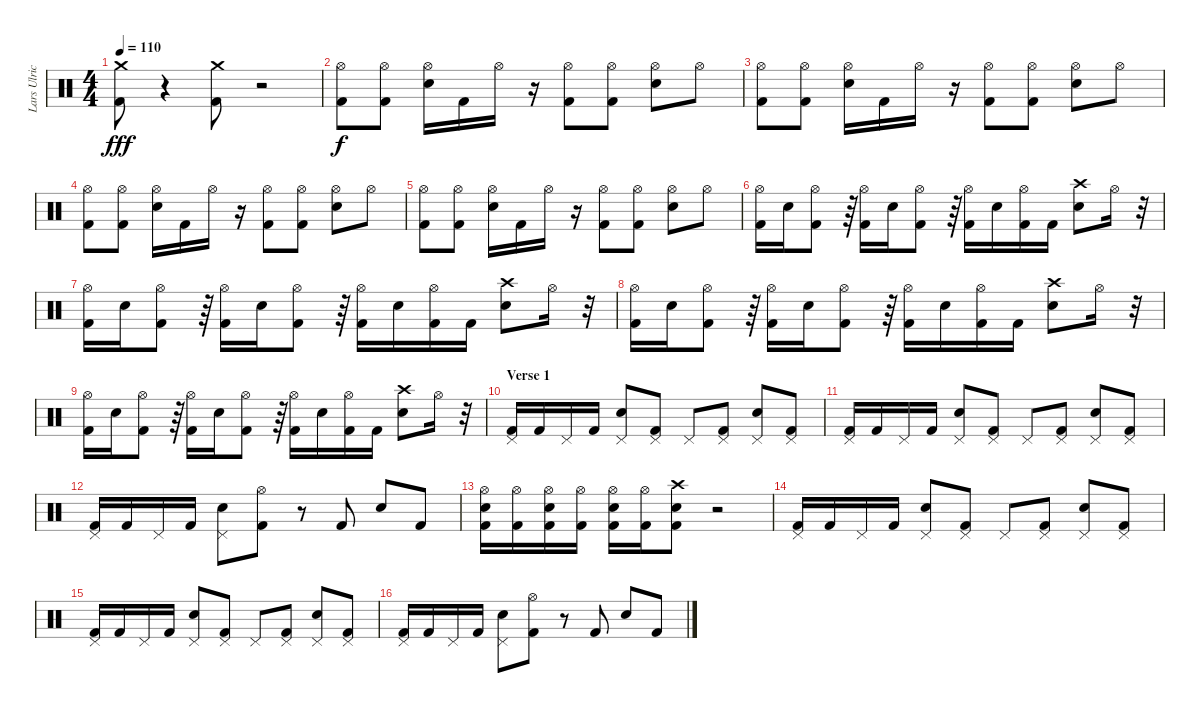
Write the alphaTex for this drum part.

\track ("Lars Ulrich" "Lars Ulric") {instrument percussion}
\staff {score}
\articulation defaults
\ts (4 4)
\tempo 110
\clef neutral
\ks c
("Crash medium (hit)" "Kick (hit) 2").8{dy fff} r.4 ("Crash medium (hit)" "Kick (hit) 2").8 r.2 |
("Hi-Hat (open)" "Kick (hit) 2").8{dy f} ("Hi-Hat (open)" "Kick (hit) 2").8 ("Hi-Hat (open)" "Electric Snare (hit)").16 "Kick (hit) 2".16 "Hi-Hat (open)".16 r.16 ("Hi-Hat (open)" "Kick (hit) 2").8 ("Hi-Hat (open)" "Kick (hit) 2").8 ("Hi-Hat (open)" "Electric Snare (hit)").8 "Hi-Hat (open)".8 |
("Hi-Hat (open)" "Kick (hit) 2").8 ("Hi-Hat (open)" "Kick (hit) 2").8 ("Hi-Hat (open)" "Electric Snare (hit)").16 "Kick (hit) 2".16 "Hi-Hat (open)".16 r.16 ("Hi-Hat (open)" "Kick (hit) 2").8 ("Hi-Hat (open)" "Kick (hit) 2").8 ("Hi-Hat (open)" "Electric Snare (hit)").8 "Hi-Hat (open)".8 |
("Hi-Hat (open)" "Kick (hit) 2").8 ("Hi-Hat (open)" "Kick (hit) 2").8 ("Hi-Hat (open)" "Electric Snare (hit)").16 "Kick (hit) 2".16 "Hi-Hat (open)".16 r.16 ("Hi-Hat (open)" "Kick (hit) 2").8 ("Hi-Hat (open)" "Kick (hit) 2").8 ("Hi-Hat (open)" "Electric Snare (hit)").8 "Hi-Hat (open)".8 |
("Hi-Hat (open)" "Kick (hit) 2").8 ("Hi-Hat (open)" "Kick (hit) 2").8 ("Hi-Hat (open)" "Electric Snare (hit)").16 "Kick (hit) 2".16 "Hi-Hat (open)".16 r.16 ("Hi-Hat (open)" "Kick (hit) 2").8 ("Hi-Hat (open)" "Kick (hit) 2").8 ("Hi-Hat (open)" "Electric Snare (hit)").8 "Hi-Hat (open)".8 |
("Hi-Hat (open)" "Kick (hit) 2").16 "Electric Snare (hit)".16 ("Hi-Hat (open)" "Kick (hit) 2").8 r.64 ("Hi-Hat (open)" "Kick (hit) 2").16 "Electric Snare (hit)".16 ("Hi-Hat (open)" "Kick (hit) 2").8 r.64 ("Hi-Hat (open)" "Kick (hit) 2").16 "Electric Snare (hit)".16 ("Hi-Hat (open)" "Kick (hit) 2").16 "Kick (hit) 2".16 ("Crash high (hit)" "Electric Snare (hit)").8 "Hi-Hat (open)".16 r.32 |
("Hi-Hat (open)" "Kick (hit) 2").16 "Electric Snare (hit)".16 ("Hi-Hat (open)" "Kick (hit) 2").8 r.64 ("Hi-Hat (open)" "Kick (hit) 2").16 "Electric Snare (hit)".16 ("Hi-Hat (open)" "Kick (hit) 2").8 r.64 ("Hi-Hat (open)" "Kick (hit) 2").16 "Electric Snare (hit)".16 ("Hi-Hat (open)" "Kick (hit) 2").16 "Kick (hit) 2".16 ("Crash high (hit)" "Electric Snare (hit)").8 "Hi-Hat (open)".16 r.32 |
("Hi-Hat (open)" "Kick (hit) 2").16 "Electric Snare (hit)".16 ("Hi-Hat (open)" "Kick (hit) 2").8 r.64 ("Hi-Hat (open)" "Kick (hit) 2").16 "Electric Snare (hit)".16 ("Hi-Hat (open)" "Kick (hit) 2").8 r.64 ("Hi-Hat (open)" "Kick (hit) 2").16 "Electric Snare (hit)".16 ("Hi-Hat (open)" "Kick (hit) 2").16 "Kick (hit) 2".16 ("Crash high (hit)" "Electric Snare (hit)").8 "Hi-Hat (open)".16 r.32 |
("Hi-Hat (open)" "Kick (hit) 2").16 "Electric Snare (hit)".16 ("Hi-Hat (open)" "Kick (hit) 2").8 r.64 ("Hi-Hat (open)" "Kick (hit) 2").16 "Electric Snare (hit)".16 ("Hi-Hat (open)" "Kick (hit) 2").8 r.64 ("Hi-Hat (open)" "Kick (hit) 2").16 "Electric Snare (hit)".16 ("Hi-Hat (open)" "Kick (hit) 2").16 "Kick (hit) 2".16 ("Crash high (hit)" "Electric Snare (hit)").8 "Hi-Hat (open)".16 r.32 |
\section ("" "Verse 1")
("Pedal Hi-Hat (hit)" "Kick (hit) 2").16 "Kick (hit) 2".16 "Pedal Hi-Hat (hit)".16 "Kick (hit) 2".16 ("Pedal Hi-Hat (hit)" "Electric Snare (hit)").8 ("Pedal Hi-Hat (hit)" "Kick (hit) 2").8 "Pedal Hi-Hat (hit)".8 ("Pedal Hi-Hat (hit)" "Kick (hit) 2").8 ("Pedal Hi-Hat (hit)" "Electric Snare (hit)").8 ("Pedal Hi-Hat (hit)" "Kick (hit) 2").8 |
("Pedal Hi-Hat (hit)" "Kick (hit) 2").16 "Kick (hit) 2".16 "Pedal Hi-Hat (hit)".16 "Kick (hit) 2".16 ("Pedal Hi-Hat (hit)" "Electric Snare (hit)").8 ("Pedal Hi-Hat (hit)" "Kick (hit) 2").8 "Pedal Hi-Hat (hit)".8 ("Pedal Hi-Hat (hit)" "Kick (hit) 2").8 ("Pedal Hi-Hat (hit)" "Electric Snare (hit)").8 ("Pedal Hi-Hat (hit)" "Kick (hit) 2").8 |
("Pedal Hi-Hat (hit)" "Kick (hit) 2").16 "Kick (hit) 2".16 "Pedal Hi-Hat (hit)".16 "Kick (hit) 2".16 ("Pedal Hi-Hat (hit)" "Electric Snare (hit)").8 ("Hi-Hat (open)" "Kick (hit) 2").8 r.8 "Kick (hit) 2".8 "Electric Snare (hit)".8 "Kick (hit) 2".8 |
("Hi-Hat (open)" "Electric Snare (hit)" "Kick (hit) 2").16 ("Hi-Hat (open)" "Kick (hit) 2").16 ("Hi-Hat (open)" "Electric Snare (hit)" "Kick (hit) 2").16 ("Hi-Hat (open)" "Kick (hit) 2").16 ("Hi-Hat (open)" "Electric Snare (hit)" "Kick (hit) 2").16 ("Hi-Hat (open)" "Kick (hit) 2").16 ("Crash high (hit)" "Electric Snare (hit)" "Kick (hit) 2").8 r.2 |
("Pedal Hi-Hat (hit)" "Kick (hit) 2").16 "Kick (hit) 2".16 "Pedal Hi-Hat (hit)".16 "Kick (hit) 2".16 ("Pedal Hi-Hat (hit)" "Electric Snare (hit)").8 ("Pedal Hi-Hat (hit)" "Kick (hit) 2").8 "Pedal Hi-Hat (hit)".8 ("Pedal Hi-Hat (hit)" "Kick (hit) 2").8 ("Pedal Hi-Hat (hit)" "Electric Snare (hit)").8 ("Pedal Hi-Hat (hit)" "Kick (hit) 2").8 |
("Pedal Hi-Hat (hit)" "Kick (hit) 2").16 "Kick (hit) 2".16 "Pedal Hi-Hat (hit)".16 "Kick (hit) 2".16 ("Pedal Hi-Hat (hit)" "Electric Snare (hit)").8 ("Pedal Hi-Hat (hit)" "Kick (hit) 2").8 "Pedal Hi-Hat (hit)".8 ("Pedal Hi-Hat (hit)" "Kick (hit) 2").8 ("Pedal Hi-Hat (hit)" "Electric Snare (hit)").8 ("Pedal Hi-Hat (hit)" "Kick (hit) 2").8 |
("Pedal Hi-Hat (hit)" "Kick (hit) 2").16 "Kick (hit) 2".16 "Pedal Hi-Hat (hit)".16 "Kick (hit) 2".16 ("Pedal Hi-Hat (hit)" "Electric Snare (hit)").8 ("Hi-Hat (open)" "Kick (hit) 2").8 r.8 "Kick (hit) 2".8 "Electric Snare (hit)".8 "Kick (hit) 2".8
